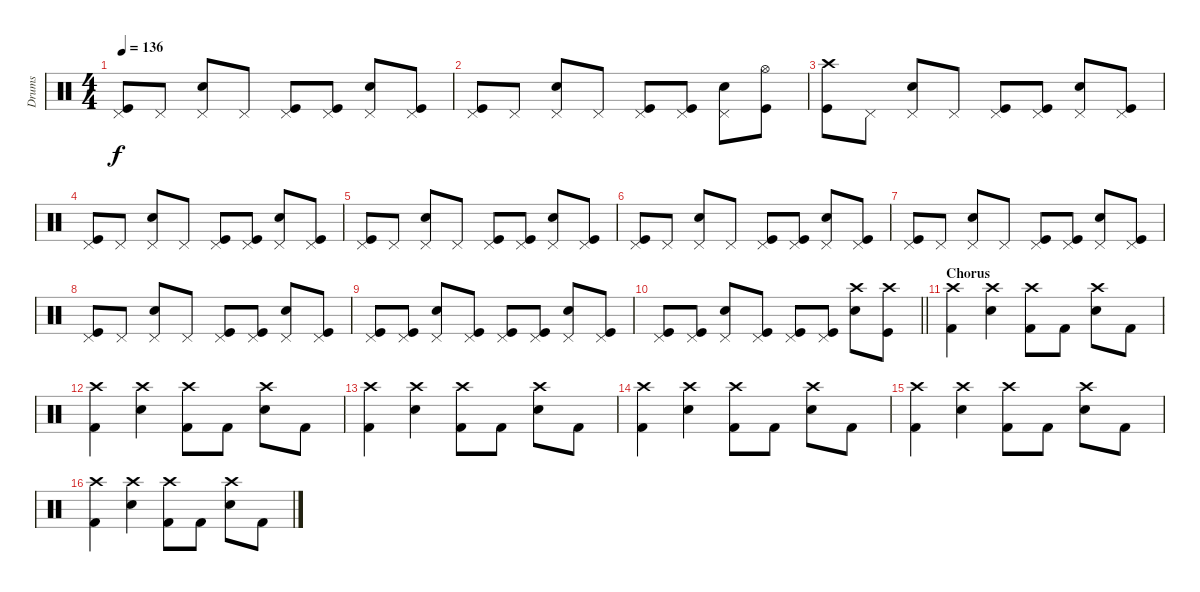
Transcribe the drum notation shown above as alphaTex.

\track ("Drums" "Drums") {instrument percussion}
\staff {score}
\articulation defaults
\ts (4 4)
\tempo 136
\clef neutral
\ks c
("Pedal Hi-Hat (hit)" "Kick (hit)").8{dy f} "Pedal Hi-Hat (hit)".8 ("Pedal Hi-Hat (hit)" "Electric Snare (hit)").8 "Pedal Hi-Hat (hit)".8 ("Pedal Hi-Hat (hit)" "Kick (hit)").8 ("Pedal Hi-Hat (hit)" "Kick (hit)").8 ("Pedal Hi-Hat (hit)" "Electric Snare (hit)").8 ("Pedal Hi-Hat (hit)" "Kick (hit)").8 |
("Pedal Hi-Hat (hit)" "Kick (hit)").8 "Pedal Hi-Hat (hit)".8 ("Pedal Hi-Hat (hit)" "Electric Snare (hit)").8 "Pedal Hi-Hat (hit)".8 ("Pedal Hi-Hat (hit)" "Kick (hit)").8 ("Pedal Hi-Hat (hit)" "Kick (hit)").8 ("Pedal Hi-Hat (hit)" "Electric Snare (hit)").8 ("Hi-Hat (open)" "Kick (hit)").8 |
("Crash high (hit)" "Kick (hit)").8 "Pedal Hi-Hat (hit)".8 ("Pedal Hi-Hat (hit)" "Electric Snare (hit)").8 "Pedal Hi-Hat (hit)".8 ("Pedal Hi-Hat (hit)" "Kick (hit)").8 ("Pedal Hi-Hat (hit)" "Kick (hit)").8 ("Pedal Hi-Hat (hit)" "Electric Snare (hit)").8 ("Pedal Hi-Hat (hit)" "Kick (hit)").8 |
("Pedal Hi-Hat (hit)" "Kick (hit)").8 "Pedal Hi-Hat (hit)".8 ("Pedal Hi-Hat (hit)" "Electric Snare (hit)").8 "Pedal Hi-Hat (hit)".8 ("Pedal Hi-Hat (hit)" "Kick (hit)").8 ("Pedal Hi-Hat (hit)" "Kick (hit)").8 ("Pedal Hi-Hat (hit)" "Electric Snare (hit)").8 ("Pedal Hi-Hat (hit)" "Kick (hit)").8 |
("Pedal Hi-Hat (hit)" "Kick (hit)").8 "Pedal Hi-Hat (hit)".8 ("Pedal Hi-Hat (hit)" "Electric Snare (hit)").8 "Pedal Hi-Hat (hit)".8 ("Pedal Hi-Hat (hit)" "Kick (hit)").8 ("Pedal Hi-Hat (hit)" "Kick (hit)").8 ("Pedal Hi-Hat (hit)" "Electric Snare (hit)").8 ("Pedal Hi-Hat (hit)" "Kick (hit)").8 |
("Pedal Hi-Hat (hit)" "Kick (hit)").8 "Pedal Hi-Hat (hit)".8 ("Pedal Hi-Hat (hit)" "Electric Snare (hit)").8 "Pedal Hi-Hat (hit)".8 ("Pedal Hi-Hat (hit)" "Kick (hit)").8 ("Pedal Hi-Hat (hit)" "Kick (hit)").8 ("Pedal Hi-Hat (hit)" "Electric Snare (hit)").8 ("Pedal Hi-Hat (hit)" "Kick (hit)").8 |
("Pedal Hi-Hat (hit)" "Kick (hit)").8 "Pedal Hi-Hat (hit)".8 ("Pedal Hi-Hat (hit)" "Electric Snare (hit)").8 "Pedal Hi-Hat (hit)".8 ("Pedal Hi-Hat (hit)" "Kick (hit)").8 ("Pedal Hi-Hat (hit)" "Kick (hit)").8 ("Pedal Hi-Hat (hit)" "Electric Snare (hit)").8 ("Pedal Hi-Hat (hit)" "Kick (hit)").8 |
("Pedal Hi-Hat (hit)" "Kick (hit)").8 "Pedal Hi-Hat (hit)".8 ("Pedal Hi-Hat (hit)" "Electric Snare (hit)").8 "Pedal Hi-Hat (hit)".8 ("Pedal Hi-Hat (hit)" "Kick (hit)").8 ("Pedal Hi-Hat (hit)" "Kick (hit)").8 ("Pedal Hi-Hat (hit)" "Electric Snare (hit)").8 ("Pedal Hi-Hat (hit)" "Kick (hit)").8 |
("Pedal Hi-Hat (hit)" "Kick (hit)").8 ("Pedal Hi-Hat (hit)" "Kick (hit)").8 ("Pedal Hi-Hat (hit)" "Electric Snare (hit)").8 ("Pedal Hi-Hat (hit)" "Kick (hit)").8 ("Pedal Hi-Hat (hit)" "Kick (hit)").8 ("Pedal Hi-Hat (hit)" "Kick (hit)").8 ("Pedal Hi-Hat (hit)" "Electric Snare (hit)").8 ("Pedal Hi-Hat (hit)" "Kick (hit)").8 |
\barLineRight lightlight
("Pedal Hi-Hat (hit)" "Kick (hit)").8 ("Pedal Hi-Hat (hit)" "Kick (hit)").8 ("Pedal Hi-Hat (hit)" "Electric Snare (hit)").8 ("Pedal Hi-Hat (hit)" "Kick (hit)").8 ("Pedal Hi-Hat (hit)" "Kick (hit)").8 ("Pedal Hi-Hat (hit)" "Kick (hit)").8 ("Crash high (hit)" "Electric Snare (hit)").8 ("Crash high (hit)" "Kick (hit)").8 |
\section ("" "Chorus")
("Crash high (hit)" "Kick (hit) 2").4 ("Crash high (hit)" "Electric Snare (hit)").4 ("Crash high (hit)" "Kick (hit) 2").8 "Kick (hit) 2".8 ("Crash high (hit)" "Electric Snare (hit)").8 "Kick (hit) 2".8 |
("Crash high (hit)" "Kick (hit) 2").4 ("Crash high (hit)" "Electric Snare (hit)").4 ("Crash high (hit)" "Kick (hit) 2").8 "Kick (hit) 2".8 ("Crash high (hit)" "Electric Snare (hit)").8 "Kick (hit) 2".8 |
("Crash high (hit)" "Kick (hit) 2").4 ("Crash high (hit)" "Electric Snare (hit)").4 ("Crash high (hit)" "Kick (hit) 2").8 "Kick (hit) 2".8 ("Crash high (hit)" "Electric Snare (hit)").8 "Kick (hit) 2".8 |
("Crash high (hit)" "Kick (hit) 2").4 ("Crash high (hit)" "Electric Snare (hit)").4 ("Crash high (hit)" "Kick (hit) 2").8 "Kick (hit) 2".8 ("Crash high (hit)" "Electric Snare (hit)").8 "Kick (hit) 2".8 |
("Crash high (hit)" "Kick (hit) 2").4 ("Crash high (hit)" "Electric Snare (hit)").4 ("Crash high (hit)" "Kick (hit) 2").8 "Kick (hit) 2".8 ("Crash high (hit)" "Electric Snare (hit)").8 "Kick (hit) 2".8 |
("Crash high (hit)" "Kick (hit) 2").4 ("Crash high (hit)" "Electric Snare (hit)").4 ("Crash high (hit)" "Kick (hit) 2").8 "Kick (hit) 2".8 ("Crash high (hit)" "Electric Snare (hit)").8 "Kick (hit) 2".8
